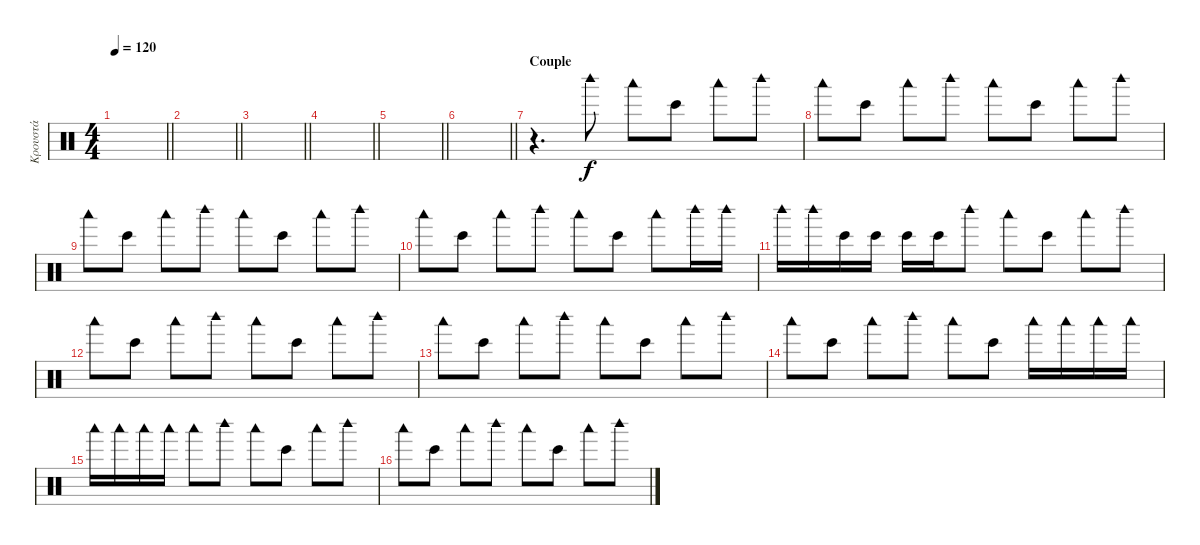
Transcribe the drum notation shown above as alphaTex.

\track ("Κρουστά" "Κρουστά") {instrument percussion}
\staff {score}
\articulation defaults
\ts (4 4)
\tempo 120
\clef neutral
\barLineRight lightlight
\ks c
|
\barLineRight lightlight
|
\barLineRight lightlight
|
\barLineRight lightlight
|
\barLineRight lightlight
|
\barLineRight lightlight
|
\section ("" "Couple")
r.4{d} "Woodblock high (hit)".8 "Woodblock low (hit)".8 "Bongo High (hit)".8 "Woodblock low (hit)".8 "Woodblock high (hit)".8 |
"Woodblock low (hit)".8 "Bongo High (hit)".8 "Woodblock low (hit)".8 "Woodblock high (hit)".8 "Woodblock low (hit)".8 "Bongo High (hit)".8 "Woodblock low (hit)".8 "Woodblock high (hit)".8 |
"Woodblock low (hit)".8 "Bongo High (hit)".8 "Woodblock low (hit)".8 "Woodblock high (hit)".8 "Woodblock low (hit)".8 "Bongo High (hit)".8 "Woodblock low (hit)".8 "Woodblock high (hit)".8 |
"Woodblock low (hit)".8 "Bongo High (hit)".8 "Woodblock low (hit)".8 "Woodblock high (hit)".8 "Woodblock low (hit)".8 "Bongo High (hit)".8 "Woodblock low (hit)".8 "Woodblock high (hit)".16 "Woodblock high (hit)".16 |
"Woodblock high (hit)".16 "Woodblock high (hit)".16 "Bongo High (hit)".16 "Bongo High (hit)".16 "Bongo High (hit)".16 "Bongo High (hit)".16 "Woodblock high (hit)".8 "Woodblock low (hit)".8 "Bongo High (hit)".8 "Woodblock low (hit)".8 "Woodblock high (hit)".8 |
"Woodblock low (hit)".8 "Bongo High (hit)".8 "Woodblock low (hit)".8 "Woodblock high (hit)".8 "Woodblock low (hit)".8 "Bongo High (hit)".8 "Woodblock low (hit)".8 "Woodblock high (hit)".8 |
"Woodblock low (hit)".8 "Bongo High (hit)".8 "Woodblock low (hit)".8 "Woodblock high (hit)".8 "Woodblock low (hit)".8 "Bongo High (hit)".8 "Woodblock low (hit)".8 "Woodblock high (hit)".8 |
"Woodblock low (hit)".8 "Bongo High (hit)".8 "Woodblock low (hit)".8 "Woodblock high (hit)".8 "Woodblock low (hit)".8 "Bongo High (hit)".8 "Woodblock low (hit)".16 "Woodblock low (hit)".16 "Woodblock low (hit)".16 "Woodblock low (hit)".16 |
"Woodblock low (hit)".16 "Woodblock low (hit)".16 "Woodblock low (hit)".16 "Woodblock low (hit)".16 "Woodblock low (hit)".8 "Woodblock high (hit)".8 "Woodblock low (hit)".8 "Bongo High (hit)".8 "Woodblock low (hit)".8 "Woodblock high (hit)".8 |
"Woodblock low (hit)".8 "Bongo High (hit)".8 "Woodblock low (hit)".8 "Woodblock high (hit)".8 "Woodblock low (hit)".8 "Bongo High (hit)".8 "Woodblock low (hit)".8 "Woodblock high (hit)".8
